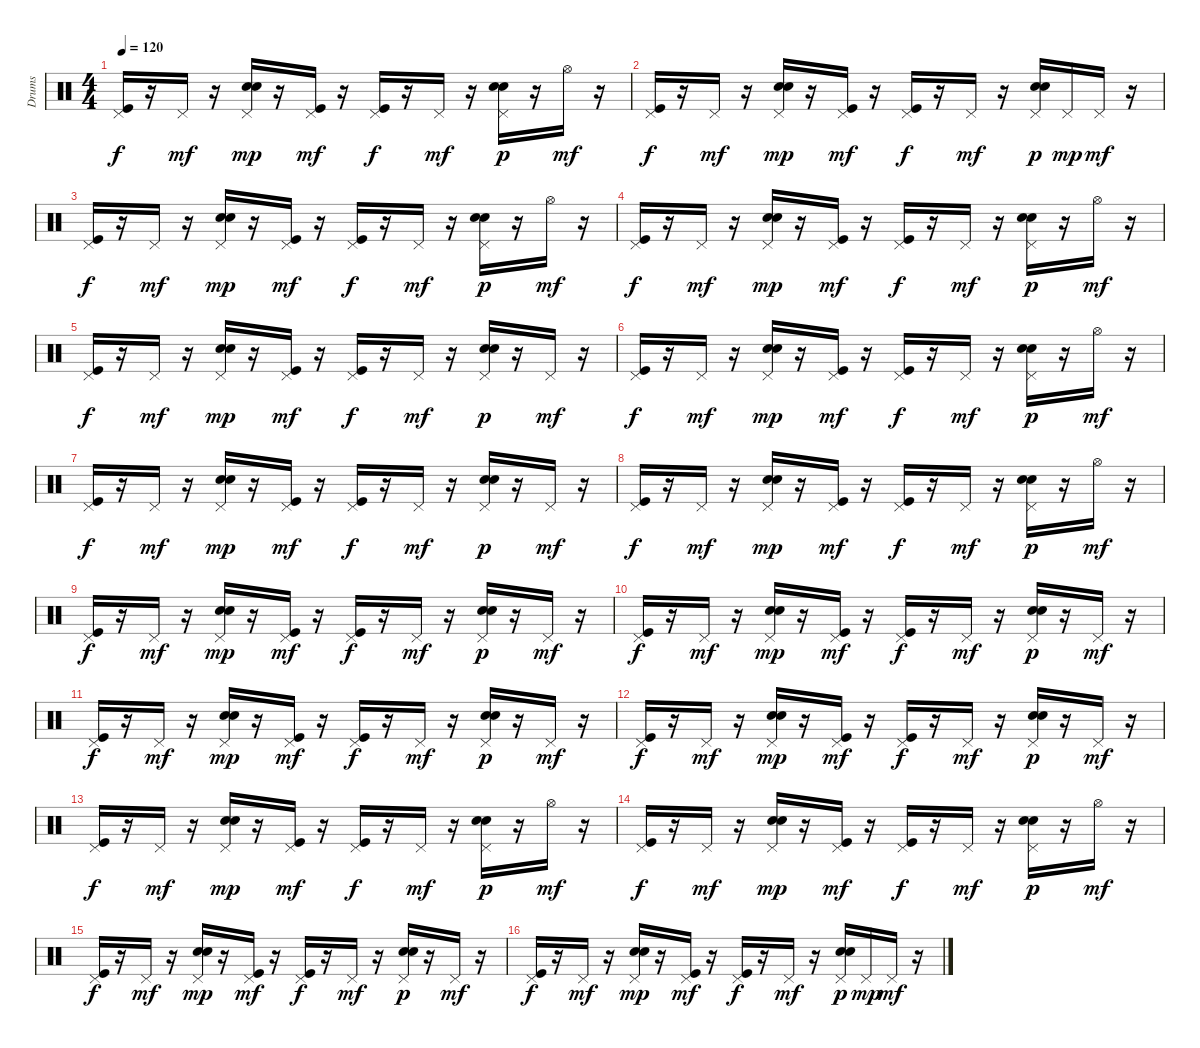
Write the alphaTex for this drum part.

\track ("Drums   " "Drums   ") {instrument percussion}
\staff {score}
\articulation defaults
\ts (4 4)
\tempo 120
\clef neutral
\ks c
("Kick (hit)" "Pedal Hi-Hat (hit)").16{dy f} r.16 "Pedal Hi-Hat (hit)".16{dy mf} r.16 ("Electric Snare (hit)" "Pedal Hi-Hat (hit)" "Hand Clap (hit)").16{dy mp} r.16 ("Kick (hit)" "Pedal Hi-Hat (hit)").16{dy mf} r.16 ("Kick (hit)" "Pedal Hi-Hat (hit)").16{dy f} r.16 "Pedal Hi-Hat (hit)".16{dy mf} r.16 ("Electric Snare (hit)" "Pedal Hi-Hat (hit)" "Hand Clap (hit)").16{dy p} r.16 "Hi-Hat (open)".16{dy mf} r.16 |
("Kick (hit)" "Pedal Hi-Hat (hit)").16{dy f} r.16 "Pedal Hi-Hat (hit)".16{dy mf} r.16 ("Electric Snare (hit)" "Pedal Hi-Hat (hit)" "Hand Clap (hit)").16{dy mp} r.16 ("Kick (hit)" "Pedal Hi-Hat (hit)").16{dy mf} r.16 ("Kick (hit)" "Pedal Hi-Hat (hit)").16{dy f} r.16 "Pedal Hi-Hat (hit)".16{dy mf} r.16 ("Electric Snare (hit)" "Pedal Hi-Hat (hit)" "Hand Clap (hit)").16{dy p} "Pedal Hi-Hat (hit)".16{dy mp} "Pedal Hi-Hat (hit)".16{dy mf} r.16 |
("Kick (hit)" "Pedal Hi-Hat (hit)").16{dy f} r.16 "Pedal Hi-Hat (hit)".16{dy mf} r.16 ("Electric Snare (hit)" "Pedal Hi-Hat (hit)" "Hand Clap (hit)").16{dy mp} r.16 ("Kick (hit)" "Pedal Hi-Hat (hit)").16{dy mf} r.16 ("Kick (hit)" "Pedal Hi-Hat (hit)").16{dy f} r.16 "Pedal Hi-Hat (hit)".16{dy mf} r.16 ("Electric Snare (hit)" "Pedal Hi-Hat (hit)" "Hand Clap (hit)").16{dy p} r.16 "Hi-Hat (open)".16{dy mf} r.16 |
("Kick (hit)" "Pedal Hi-Hat (hit)").16{dy f} r.16 "Pedal Hi-Hat (hit)".16{dy mf} r.16 ("Electric Snare (hit)" "Pedal Hi-Hat (hit)" "Hand Clap (hit)").16{dy mp} r.16 ("Kick (hit)" "Pedal Hi-Hat (hit)").16{dy mf} r.16 ("Kick (hit)" "Pedal Hi-Hat (hit)").16{dy f} r.16 "Pedal Hi-Hat (hit)".16{dy mf} r.16 ("Electric Snare (hit)" "Pedal Hi-Hat (hit)" "Hand Clap (hit)").16{dy p} r.16 "Hi-Hat (open)".16{dy mf} r.16 |
("Kick (hit)" "Pedal Hi-Hat (hit)").16{dy f} r.16 "Pedal Hi-Hat (hit)".16{dy mf} r.16 ("Electric Snare (hit)" "Pedal Hi-Hat (hit)" "Hand Clap (hit)").16{dy mp} r.16 ("Kick (hit)" "Pedal Hi-Hat (hit)").16{dy mf} r.16 ("Kick (hit)" "Pedal Hi-Hat (hit)").16{dy f} r.16 "Pedal Hi-Hat (hit)".16{dy mf} r.16 ("Electric Snare (hit)" "Pedal Hi-Hat (hit)" "Hand Clap (hit)").16{dy p} r.16 "Pedal Hi-Hat (hit)".16{dy mf} r.16 |
("Kick (hit)" "Pedal Hi-Hat (hit)").16{dy f} r.16 "Pedal Hi-Hat (hit)".16{dy mf} r.16 ("Electric Snare (hit)" "Pedal Hi-Hat (hit)" "Hand Clap (hit)").16{dy mp} r.16 ("Kick (hit)" "Pedal Hi-Hat (hit)").16{dy mf} r.16 ("Kick (hit)" "Pedal Hi-Hat (hit)").16{dy f} r.16 "Pedal Hi-Hat (hit)".16{dy mf} r.16 ("Electric Snare (hit)" "Pedal Hi-Hat (hit)" "Hand Clap (hit)").16{dy p} r.16 "Hi-Hat (open)".16{dy mf} r.16 |
("Kick (hit)" "Pedal Hi-Hat (hit)").16{dy f} r.16 "Pedal Hi-Hat (hit)".16{dy mf} r.16 ("Electric Snare (hit)" "Pedal Hi-Hat (hit)" "Hand Clap (hit)").16{dy mp} r.16 ("Kick (hit)" "Pedal Hi-Hat (hit)").16{dy mf} r.16 ("Kick (hit)" "Pedal Hi-Hat (hit)").16{dy f} r.16 "Pedal Hi-Hat (hit)".16{dy mf} r.16 ("Electric Snare (hit)" "Pedal Hi-Hat (hit)" "Hand Clap (hit)").16{dy p} r.16 "Pedal Hi-Hat (hit)".16{dy mf} r.16 |
("Kick (hit)" "Pedal Hi-Hat (hit)").16{dy f} r.16 "Pedal Hi-Hat (hit)".16{dy mf} r.16 ("Electric Snare (hit)" "Pedal Hi-Hat (hit)" "Hand Clap (hit)").16{dy mp} r.16 ("Kick (hit)" "Pedal Hi-Hat (hit)").16{dy mf} r.16 ("Kick (hit)" "Pedal Hi-Hat (hit)").16{dy f} r.16 "Pedal Hi-Hat (hit)".16{dy mf} r.16 ("Electric Snare (hit)" "Pedal Hi-Hat (hit)" "Hand Clap (hit)").16{dy p} r.16 "Hi-Hat (open)".16{dy mf} r.16 |
("Kick (hit)" "Pedal Hi-Hat (hit)").16{dy f} r.16 "Pedal Hi-Hat (hit)".16{dy mf} r.16 ("Electric Snare (hit)" "Pedal Hi-Hat (hit)" "Hand Clap (hit)").16{dy mp} r.16 ("Kick (hit)" "Pedal Hi-Hat (hit)").16{dy mf} r.16 ("Kick (hit)" "Pedal Hi-Hat (hit)").16{dy f} r.16 "Pedal Hi-Hat (hit)".16{dy mf} r.16 ("Electric Snare (hit)" "Pedal Hi-Hat (hit)" "Hand Clap (hit)").16{dy p} r.16 "Pedal Hi-Hat (hit)".16{dy mf} r.16 |
("Kick (hit)" "Pedal Hi-Hat (hit)").16{dy f} r.16 "Pedal Hi-Hat (hit)".16{dy mf} r.16 ("Electric Snare (hit)" "Pedal Hi-Hat (hit)" "Hand Clap (hit)").16{dy mp} r.16 ("Kick (hit)" "Pedal Hi-Hat (hit)").16{dy mf} r.16 ("Kick (hit)" "Pedal Hi-Hat (hit)").16{dy f} r.16 "Pedal Hi-Hat (hit)".16{dy mf} r.16 ("Electric Snare (hit)" "Pedal Hi-Hat (hit)" "Hand Clap (hit)").16{dy p} r.16 "Pedal Hi-Hat (hit)".16{dy mf} r.16 |
("Kick (hit)" "Pedal Hi-Hat (hit)").16{dy f} r.16 "Pedal Hi-Hat (hit)".16{dy mf} r.16 ("Electric Snare (hit)" "Pedal Hi-Hat (hit)" "Hand Clap (hit)").16{dy mp} r.16 ("Kick (hit)" "Pedal Hi-Hat (hit)").16{dy mf} r.16 ("Kick (hit)" "Pedal Hi-Hat (hit)").16{dy f} r.16 "Pedal Hi-Hat (hit)".16{dy mf} r.16 ("Electric Snare (hit)" "Pedal Hi-Hat (hit)" "Hand Clap (hit)").16{dy p} r.16 "Pedal Hi-Hat (hit)".16{dy mf} r.16 |
("Kick (hit)" "Pedal Hi-Hat (hit)").16{dy f} r.16 "Pedal Hi-Hat (hit)".16{dy mf} r.16 ("Electric Snare (hit)" "Pedal Hi-Hat (hit)" "Hand Clap (hit)").16{dy mp} r.16 ("Kick (hit)" "Pedal Hi-Hat (hit)").16{dy mf} r.16 ("Kick (hit)" "Pedal Hi-Hat (hit)").16{dy f} r.16 "Pedal Hi-Hat (hit)".16{dy mf} r.16 ("Electric Snare (hit)" "Pedal Hi-Hat (hit)" "Hand Clap (hit)").16{dy p} r.16 "Pedal Hi-Hat (hit)".16{dy mf} r.16 |
("Kick (hit)" "Pedal Hi-Hat (hit)").16{dy f} r.16 "Pedal Hi-Hat (hit)".16{dy mf} r.16 ("Electric Snare (hit)" "Pedal Hi-Hat (hit)" "Hand Clap (hit)").16{dy mp} r.16 ("Kick (hit)" "Pedal Hi-Hat (hit)").16{dy mf} r.16 ("Kick (hit)" "Pedal Hi-Hat (hit)").16{dy f} r.16 "Pedal Hi-Hat (hit)".16{dy mf} r.16 ("Electric Snare (hit)" "Pedal Hi-Hat (hit)" "Hand Clap (hit)").16{dy p} r.16 "Hi-Hat (open)".16{dy mf} r.16 |
("Kick (hit)" "Pedal Hi-Hat (hit)").16{dy f} r.16 "Pedal Hi-Hat (hit)".16{dy mf} r.16 ("Electric Snare (hit)" "Pedal Hi-Hat (hit)" "Hand Clap (hit)").16{dy mp} r.16 ("Kick (hit)" "Pedal Hi-Hat (hit)").16{dy mf} r.16 ("Kick (hit)" "Pedal Hi-Hat (hit)").16{dy f} r.16 "Pedal Hi-Hat (hit)".16{dy mf} r.16 ("Electric Snare (hit)" "Pedal Hi-Hat (hit)" "Hand Clap (hit)").16{dy p} r.16 "Hi-Hat (open)".16{dy mf} r.16 |
("Kick (hit)" "Pedal Hi-Hat (hit)").16{dy f} r.16 "Pedal Hi-Hat (hit)".16{dy mf} r.16 ("Electric Snare (hit)" "Pedal Hi-Hat (hit)" "Hand Clap (hit)").16{dy mp} r.16 ("Kick (hit)" "Pedal Hi-Hat (hit)").16{dy mf} r.16 ("Kick (hit)" "Pedal Hi-Hat (hit)").16{dy f} r.16 "Pedal Hi-Hat (hit)".16{dy mf} r.16 ("Electric Snare (hit)" "Pedal Hi-Hat (hit)" "Hand Clap (hit)").16{dy p} r.16 "Pedal Hi-Hat (hit)".16{dy mf} r.16 |
("Kick (hit)" "Pedal Hi-Hat (hit)").16{dy f} r.16 "Pedal Hi-Hat (hit)".16{dy mf} r.16 ("Electric Snare (hit)" "Pedal Hi-Hat (hit)" "Hand Clap (hit)").16{dy mp} r.16 ("Kick (hit)" "Pedal Hi-Hat (hit)").16{dy mf} r.16 ("Kick (hit)" "Pedal Hi-Hat (hit)").16{dy f} r.16 "Pedal Hi-Hat (hit)".16{dy mf} r.16 ("Electric Snare (hit)" "Pedal Hi-Hat (hit)" "Hand Clap (hit)").16{dy p} "Pedal Hi-Hat (hit)".16{dy mp} "Pedal Hi-Hat (hit)".16{dy mf} r.16
